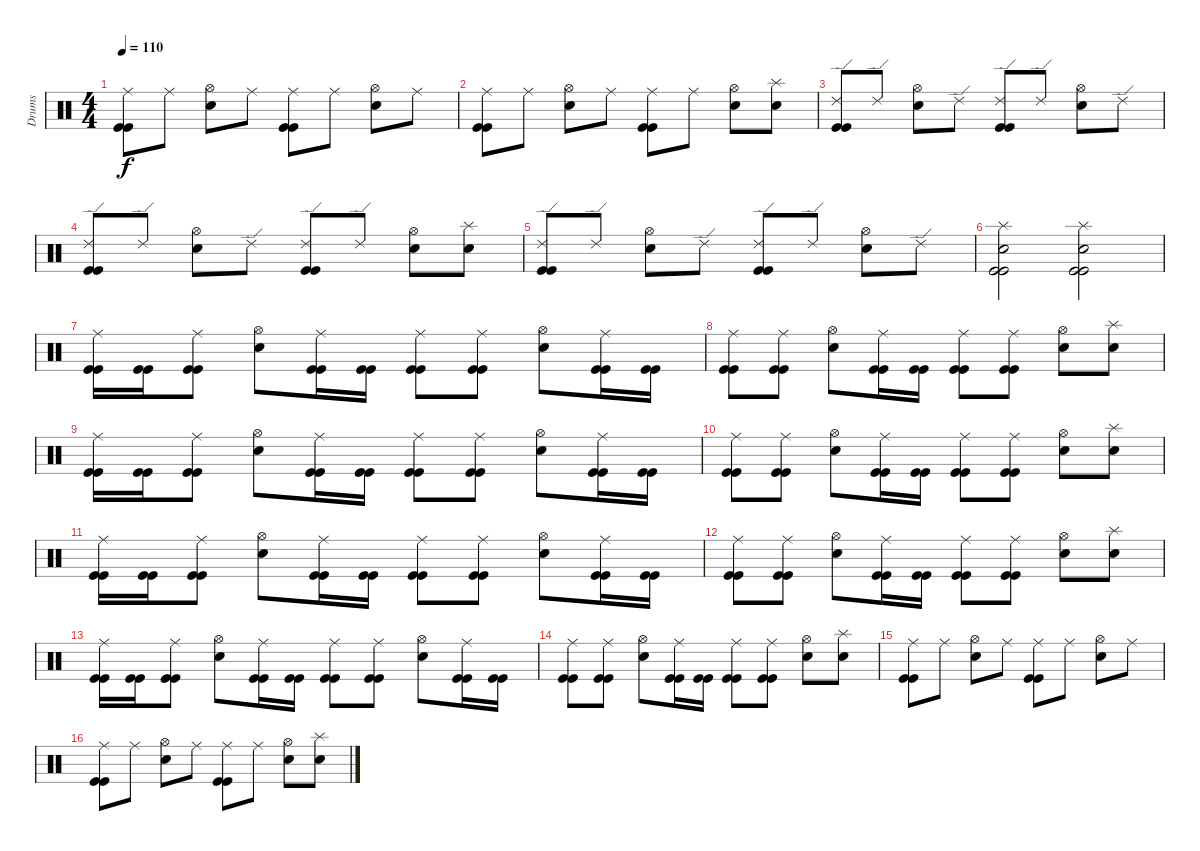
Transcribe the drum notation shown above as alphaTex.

\track ("Drums" "Drums") {instrument percussion}
\staff {score}
\articulation defaults
\ts (4 4)
\tempo 110
\clef neutral
\ks c
("Ride (middle)" "Kick (hit)" "Kick (hit)").8{dy f} "Ride (middle)".8 ("Hi-Hat (open)" "Snare (hit) 2").8 "Ride (middle)".8 ("Ride (middle)" "Kick (hit)" "Kick (hit)").8 "Ride (middle)".8 ("Hi-Hat (open)" "Snare (hit) 2").8 "Ride (middle)".8 |
("Ride (middle)" "Kick (hit)" "Kick (hit)").8 "Ride (middle)".8 ("Hi-Hat (open)" "Snare (hit) 2").8 "Ride (middle)".8 ("Ride (middle)" "Kick (hit)" "Kick (hit)").8 "Ride (middle)".8 ("Hi-Hat (open)" "Snare (hit) 2").8 ("Splash (hit)" "Snare (hit) 2").8 |
("Ride (edge) 2" "Kick (hit)" "Kick (hit)").8 "Ride (edge) 2".8 ("Hi-Hat (open)" "Snare (hit) 2").8 "Ride (edge) 2".8 ("Ride (edge) 2" "Kick (hit)" "Kick (hit)").8 "Ride (edge) 2".8 ("Hi-Hat (open)" "Snare (hit) 2").8 "Ride (edge) 2".8 |
("Ride (edge) 2" "Kick (hit)" "Kick (hit)").8 "Ride (edge) 2".8 ("Hi-Hat (open)" "Snare (hit) 2").8 "Ride (edge) 2".8 ("Ride (edge) 2" "Kick (hit)" "Kick (hit)").8 "Ride (edge) 2".8 ("Hi-Hat (open)" "Snare (hit) 2").8 ("Splash (hit)" "Snare (hit) 2").8 |
("Ride (edge) 2" "Kick (hit)" "Kick (hit)").8 "Ride (edge) 2".8 ("Hi-Hat (open)" "Snare (hit) 2").8 "Ride (edge) 2".8 ("Ride (edge) 2" "Kick (hit)" "Kick (hit)").8 "Ride (edge) 2".8 ("Hi-Hat (open)" "Snare (hit) 2").8 "Ride (edge) 2".8 |
("Splash (hit)" "Snare (hit) 2" "Kick (hit)" "Kick (hit)").2 ("Splash (hit)" "Snare (hit) 2" "Kick (hit)" "Kick (hit)").2 |
("Ride (middle)" "Kick (hit)" "Kick (hit)").16 ("Kick (hit)" "Kick (hit)").16 ("Ride (middle)" "Kick (hit)" "Kick (hit)").8 ("Hi-Hat (open)" "Snare (hit) 2").8 ("Ride (middle)" "Kick (hit)" "Kick (hit)").16 ("Kick (hit)" "Kick (hit)").16 ("Ride (middle)" "Kick (hit)" "Kick (hit)").8 ("Ride (middle)" "Kick (hit)" "Kick (hit)").8 ("Hi-Hat (open)" "Snare (hit) 2").8 ("Ride (middle)" "Kick (hit)" "Kick (hit)").16 ("Kick (hit)" "Kick (hit)").16 |
("Ride (middle)" "Kick (hit)" "Kick (hit)").8 ("Ride (middle)" "Kick (hit)" "Kick (hit)").8 ("Hi-Hat (open)" "Snare (hit) 2").8 ("Ride (middle)" "Kick (hit)" "Kick (hit)").16 ("Kick (hit)" "Kick (hit)").16 ("Ride (middle)" "Kick (hit)" "Kick (hit)").8 ("Ride (middle)" "Kick (hit)" "Kick (hit)").8 ("Hi-Hat (open)" "Snare (hit) 2").8 ("Splash (hit)" "Snare (hit) 2").8 |
("Ride (middle)" "Kick (hit)" "Kick (hit)").16 ("Kick (hit)" "Kick (hit)").16 ("Ride (middle)" "Kick (hit)" "Kick (hit)").8 ("Hi-Hat (open)" "Snare (hit) 2").8 ("Ride (middle)" "Kick (hit)" "Kick (hit)").16 ("Kick (hit)" "Kick (hit)").16 ("Ride (middle)" "Kick (hit)" "Kick (hit)").8 ("Ride (middle)" "Kick (hit)" "Kick (hit)").8 ("Hi-Hat (open)" "Snare (hit) 2").8 ("Ride (middle)" "Kick (hit)" "Kick (hit)").16 ("Kick (hit)" "Kick (hit)").16 |
("Ride (middle)" "Kick (hit)" "Kick (hit)").8 ("Ride (middle)" "Kick (hit)" "Kick (hit)").8 ("Hi-Hat (open)" "Snare (hit) 2").8 ("Ride (middle)" "Kick (hit)" "Kick (hit)").16 ("Kick (hit)" "Kick (hit)").16 ("Ride (middle)" "Kick (hit)" "Kick (hit)").8 ("Ride (middle)" "Kick (hit)" "Kick (hit)").8 ("Hi-Hat (open)" "Snare (hit) 2").8 ("Splash (hit)" "Snare (hit) 2").8 |
("Ride (middle)" "Kick (hit)" "Kick (hit)").16 ("Kick (hit)" "Kick (hit)").16 ("Ride (middle)" "Kick (hit)" "Kick (hit)").8 ("Hi-Hat (open)" "Snare (hit) 2").8 ("Ride (middle)" "Kick (hit)" "Kick (hit)").16 ("Kick (hit)" "Kick (hit)").16 ("Ride (middle)" "Kick (hit)" "Kick (hit)").8 ("Ride (middle)" "Kick (hit)" "Kick (hit)").8 ("Hi-Hat (open)" "Snare (hit) 2").8 ("Ride (middle)" "Kick (hit)" "Kick (hit)").16 ("Kick (hit)" "Kick (hit)").16 |
("Ride (middle)" "Kick (hit)" "Kick (hit)").8 ("Ride (middle)" "Kick (hit)" "Kick (hit)").8 ("Hi-Hat (open)" "Snare (hit) 2").8 ("Ride (middle)" "Kick (hit)" "Kick (hit)").16 ("Kick (hit)" "Kick (hit)").16 ("Ride (middle)" "Kick (hit)" "Kick (hit)").8 ("Ride (middle)" "Kick (hit)" "Kick (hit)").8 ("Hi-Hat (open)" "Snare (hit) 2").8 ("Splash (hit)" "Snare (hit) 2").8 |
("Ride (middle)" "Kick (hit)" "Kick (hit)").16 ("Kick (hit)" "Kick (hit)").16 ("Ride (middle)" "Kick (hit)" "Kick (hit)").8 ("Hi-Hat (open)" "Snare (hit) 2").8 ("Ride (middle)" "Kick (hit)" "Kick (hit)").16 ("Kick (hit)" "Kick (hit)").16 ("Ride (middle)" "Kick (hit)" "Kick (hit)").8 ("Ride (middle)" "Kick (hit)" "Kick (hit)").8 ("Hi-Hat (open)" "Snare (hit) 2").8 ("Ride (middle)" "Kick (hit)" "Kick (hit)").16 ("Kick (hit)" "Kick (hit)").16 |
("Ride (middle)" "Kick (hit)" "Kick (hit)").8 ("Ride (middle)" "Kick (hit)" "Kick (hit)").8 ("Hi-Hat (open)" "Snare (hit) 2").8 ("Ride (middle)" "Kick (hit)" "Kick (hit)").16 ("Kick (hit)" "Kick (hit)").16 ("Ride (middle)" "Kick (hit)" "Kick (hit)").8 ("Ride (middle)" "Kick (hit)" "Kick (hit)").8 ("Hi-Hat (open)" "Snare (hit) 2").8 ("Splash (hit)" "Snare (hit) 2").8 |
("Ride (middle)" "Kick (hit)" "Kick (hit)").8 "Ride (middle)".8 ("Hi-Hat (open)" "Snare (hit) 2").8 "Ride (middle)".8 ("Ride (middle)" "Kick (hit)" "Kick (hit)").8 "Ride (middle)".8 ("Hi-Hat (open)" "Snare (hit) 2").8 "Ride (middle)".8 |
("Ride (middle)" "Kick (hit)" "Kick (hit)").8 "Ride (middle)".8 ("Hi-Hat (open)" "Snare (hit) 2").8 "Ride (middle)".8 ("Ride (middle)" "Kick (hit)" "Kick (hit)").8 "Ride (middle)".8 ("Hi-Hat (open)" "Snare (hit) 2").8 ("Splash (hit)" "Snare (hit) 2").8
